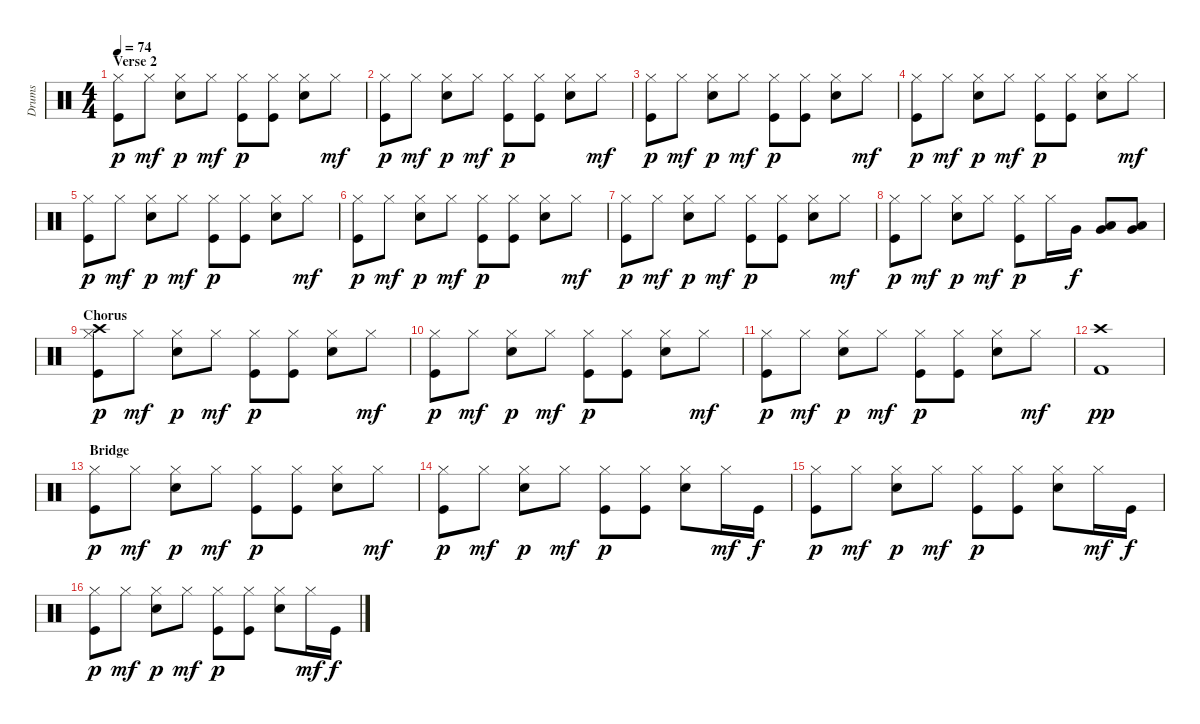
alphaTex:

\track ("Drums" "Drums") {instrument percussion}
\staff {score}
\articulation defaults
\ts (4 4)
\section ("" "Verse 2")
\tempo 74
\clef neutral
\ks c
("Hi-Hat (closed)" "Kick (hit)").8{dy p} "Hi-Hat (closed)".8{dy mf} ("Hi-Hat (closed)" "Electric Snare (hit)").8{dy p} "Hi-Hat (closed)".8{dy mf} ("Hi-Hat (closed)" "Kick (hit)").8{dy p} ("Hi-Hat (closed)" "Kick (hit)").8 ("Hi-Hat (closed)" "Electric Snare (hit)").8 "Hi-Hat (closed)".8{dy mf} |
("Hi-Hat (closed)" "Kick (hit)").8{dy p} "Hi-Hat (closed)".8{dy mf} ("Hi-Hat (closed)" "Electric Snare (hit)").8{dy p} "Hi-Hat (closed)".8{dy mf} ("Hi-Hat (closed)" "Kick (hit)").8{dy p} ("Hi-Hat (closed)" "Kick (hit)").8 ("Hi-Hat (closed)" "Electric Snare (hit)").8 "Hi-Hat (closed)".8{dy mf} |
("Hi-Hat (closed)" "Kick (hit)").8{dy p} "Hi-Hat (closed)".8{dy mf} ("Hi-Hat (closed)" "Electric Snare (hit)").8{dy p} "Hi-Hat (closed)".8{dy mf} ("Hi-Hat (closed)" "Kick (hit)").8{dy p} ("Hi-Hat (closed)" "Kick (hit)").8 ("Hi-Hat (closed)" "Electric Snare (hit)").8 "Hi-Hat (closed)".8{dy mf} |
("Hi-Hat (closed)" "Kick (hit)").8{dy p} "Hi-Hat (closed)".8{dy mf} ("Hi-Hat (closed)" "Electric Snare (hit)").8{dy p} "Hi-Hat (closed)".8{dy mf} ("Hi-Hat (closed)" "Kick (hit)").8{dy p} ("Hi-Hat (closed)" "Kick (hit)").8 ("Hi-Hat (closed)" "Electric Snare (hit)").8 "Hi-Hat (closed)".8{dy mf} |
("Hi-Hat (closed)" "Kick (hit)").8{dy p} "Hi-Hat (closed)".8{dy mf} ("Hi-Hat (closed)" "Electric Snare (hit)").8{dy p} "Hi-Hat (closed)".8{dy mf} ("Hi-Hat (closed)" "Kick (hit)").8{dy p} ("Hi-Hat (closed)" "Kick (hit)").8 ("Hi-Hat (closed)" "Electric Snare (hit)").8 "Hi-Hat (closed)".8{dy mf} |
("Hi-Hat (closed)" "Kick (hit)").8{dy p} "Hi-Hat (closed)".8{dy mf} ("Hi-Hat (closed)" "Electric Snare (hit)").8{dy p} "Hi-Hat (closed)".8{dy mf} ("Hi-Hat (closed)" "Kick (hit)").8{dy p} ("Hi-Hat (closed)" "Kick (hit)").8 ("Hi-Hat (closed)" "Electric Snare (hit)").8 "Hi-Hat (closed)".8{dy mf} |
("Hi-Hat (closed)" "Kick (hit)").8{dy p} "Hi-Hat (closed)".8{dy mf} ("Hi-Hat (closed)" "Electric Snare (hit)").8{dy p} "Hi-Hat (closed)".8{dy mf} ("Hi-Hat (closed)" "Kick (hit)").8{dy p} ("Hi-Hat (closed)" "Kick (hit)").8 ("Hi-Hat (closed)" "Electric Snare (hit)").8 "Hi-Hat (closed)".8{dy mf} |
("Hi-Hat (closed)" "Kick (hit)").8{dy p} "Hi-Hat (closed)".8{dy mf} ("Hi-Hat (closed)" "Electric Snare (hit)").8{dy p} "Hi-Hat (closed)".8{dy mf} ("Hi-Hat (closed)" "Kick (hit)").8{dy p} "Hi-Hat (closed)".16 "Very Low Tom (hit)".16{dy f} ("Low Floor Tom (hit)" "Very Low Tom (hit)").8 ("Low Floor Tom (hit)" "Very Low Tom (hit)").8 |
\section ("" "Chorus")
("Crash high (hit)" "Hi-Hat (closed)" "Kick (hit)").8{dy p} "Hi-Hat (closed)".8{dy mf} ("Hi-Hat (closed)" "Electric Snare (hit)").8{dy p} "Hi-Hat (closed)".8{dy mf} ("Hi-Hat (closed)" "Kick (hit)").8{dy p} ("Hi-Hat (closed)" "Kick (hit)").8 ("Hi-Hat (closed)" "Electric Snare (hit)").8 "Hi-Hat (closed)".8{dy mf} |
("Hi-Hat (closed)" "Kick (hit)").8{dy p} "Hi-Hat (closed)".8{dy mf} ("Hi-Hat (closed)" "Electric Snare (hit)").8{dy p} "Hi-Hat (closed)".8{dy mf} ("Hi-Hat (closed)" "Kick (hit)").8{dy p} ("Hi-Hat (closed)" "Kick (hit)").8 ("Hi-Hat (closed)" "Electric Snare (hit)").8 "Hi-Hat (closed)".8{dy mf} |
("Hi-Hat (closed)" "Kick (hit)").8{dy p} "Hi-Hat (closed)".8{dy mf} ("Hi-Hat (closed)" "Electric Snare (hit)").8{dy p} "Hi-Hat (closed)".8{dy mf} ("Hi-Hat (closed)" "Kick (hit)").8{dy p} ("Hi-Hat (closed)" "Kick (hit)").8 ("Hi-Hat (closed)" "Electric Snare (hit)").8 "Hi-Hat (closed)".8{dy mf} |
("Crash high (hit)" "Kick (hit) 2").1{dy pp} |
\section ("" "Bridge")
("Hi-Hat (closed)" "Kick (hit)").8{dy p} "Hi-Hat (closed)".8{dy mf} ("Hi-Hat (closed)" "Electric Snare (hit)").8{dy p} "Hi-Hat (closed)".8{dy mf} ("Hi-Hat (closed)" "Kick (hit)").8{dy p} ("Hi-Hat (closed)" "Kick (hit)").8 ("Hi-Hat (closed)" "Electric Snare (hit)").8 "Hi-Hat (closed)".8{dy mf} |
("Hi-Hat (closed)" "Kick (hit)").8{dy p} "Hi-Hat (closed)".8{dy mf} ("Hi-Hat (closed)" "Electric Snare (hit)").8{dy p} "Hi-Hat (closed)".8{dy mf} ("Hi-Hat (closed)" "Kick (hit)").8{dy p} ("Hi-Hat (closed)" "Kick (hit)").8 ("Hi-Hat (closed)" "Electric Snare (hit)").8 "Hi-Hat (closed)".16{dy mf} "Kick (hit)".16{dy f} |
("Hi-Hat (closed)" "Kick (hit)").8{dy p} "Hi-Hat (closed)".8{dy mf} ("Hi-Hat (closed)" "Electric Snare (hit)").8{dy p} "Hi-Hat (closed)".8{dy mf} ("Hi-Hat (closed)" "Kick (hit)").8{dy p} ("Hi-Hat (closed)" "Kick (hit)").8 ("Hi-Hat (closed)" "Electric Snare (hit)").8 "Hi-Hat (closed)".16{dy mf} "Kick (hit)".16{dy f} |
("Hi-Hat (closed)" "Kick (hit)").8{dy p} "Hi-Hat (closed)".8{dy mf} ("Hi-Hat (closed)" "Electric Snare (hit)").8{dy p} "Hi-Hat (closed)".8{dy mf} ("Hi-Hat (closed)" "Kick (hit)").8{dy p} ("Hi-Hat (closed)" "Kick (hit)").8 ("Hi-Hat (closed)" "Electric Snare (hit)").8 "Hi-Hat (closed)".16{dy mf} "Kick (hit)".16{dy f}
